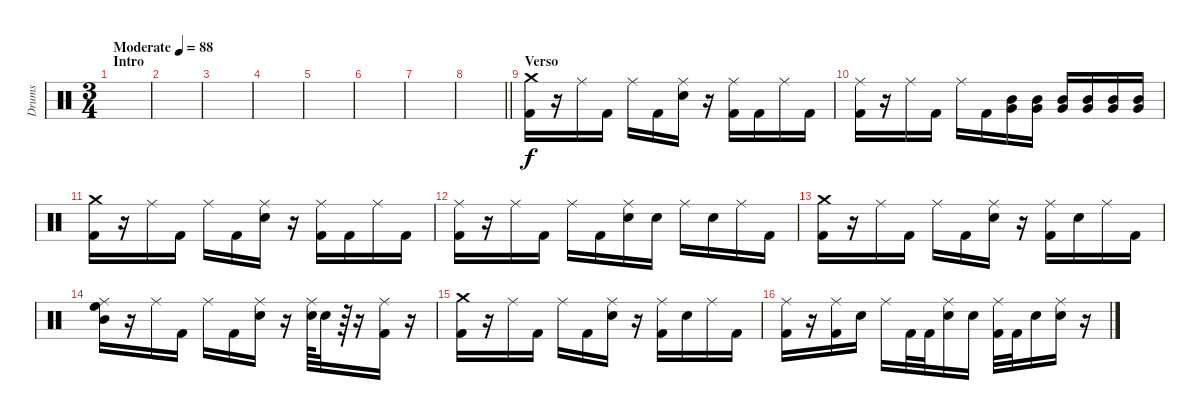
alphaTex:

\track ("Drums" "Drums") {instrument percussion}
\staff {score}
\articulation defaults
\ts (3 4)
\section ("" "Intro")
\tempo (88 "Moderate")
\clef neutral
\ks c
|
|
|
|
|
|
|
\barLineRight lightlight
|
\section ("" "Verso")
("Crash medium (hit)" "Kick (hit) 2").16 r.16 "Ride (middle)".16 "Kick (hit) 2".16 "Ride (middle)".16 "Kick (hit) 2".16 ("Ride (middle)" "Snare (hit) 2").16 r.16 ("Ride (middle)" "Kick (hit) 2").16 "Kick (hit) 2".16 "Ride (middle)".16 "Kick (hit) 2".16 |
("Ride (middle)" "Kick (hit) 2").16 r.16 "Ride (middle)".16 "Kick (hit) 2".16 "Ride (middle)".16 "Kick (hit) 2".16 ("Mid Tom (hit)" "Very Low Tom (hit)").16 ("Mid Tom (hit)" "Very Low Tom (hit)").16 ("Mid Tom (hit)" "Very Low Tom (hit)").16 ("Mid Tom (hit)" "Very Low Tom (hit)").16 ("Mid Tom (hit)" "Very Low Tom (hit)").16 ("Mid Tom (hit)" "Very Low Tom (hit)").16 |
("Crash medium (hit)" "Kick (hit) 2").16 r.16 "Ride (middle)".16 "Kick (hit) 2".16 "Ride (middle)".16 "Kick (hit) 2".16 ("Ride (middle)" "Snare (hit) 2").16 r.16 ("Ride (middle)" "Kick (hit) 2").16 "Kick (hit) 2".16 "Ride (middle)".16 "Kick (hit) 2".16 |
("Ride (middle)" "Kick (hit) 2").16 r.16 "Ride (middle)".16 "Kick (hit) 2".16 "Ride (middle)".16 "Kick (hit) 2".16 ("Ride (middle)" "Snare (hit) 2").16 "Snare (hit) 2".16 "Ride (middle)".16 "Snare (hit) 2".16 "Ride (middle)".16 "Kick (hit) 2".16 |
("Crash medium (hit)" "Kick (hit) 2").16 r.16 "Ride (middle)".16 "Kick (hit) 2".16 "Ride (middle)".16 "Kick (hit) 2".16 ("Ride (middle)" "Snare (hit) 2").16 r.16 ("Ride (middle)" "Kick (hit) 2").16 "Snare (hit) 2".16 "Ride (middle)".16 "Kick (hit) 2".16 |
("Ride (middle)" "High Floor Tom (hit)" "Mid Tom (hit)").16 r.16 "Ride (middle)".16 "Kick (hit) 2".16 "Ride (middle)".16 "Kick (hit) 2".16 ("Ride (middle)" "Snare (hit) 2").16 r.16 ("Ride (middle)" "Snare (hit) 2").64 "Snare (hit) 2".32 r.64 r.16 ("Ride (middle)" "Kick (hit) 2").16 r.16 |
("Crash medium (hit)" "Kick (hit) 2").16 r.16 "Ride (middle)".16 "Kick (hit) 2".16 "Ride (middle)".16 "Kick (hit) 2".16 ("Ride (middle)" "Snare (hit) 2").16 r.16 ("Ride (middle)" "Kick (hit) 2").16 "Snare (hit) 2".16 "Ride (middle)".16 "Kick (hit) 2".16 |
("Ride (middle)" "Kick (hit) 2").16 r.16 ("Ride (middle)" "Kick (hit) 2").16 "Snare (hit) 2".16 "Ride (middle)".16 "Kick (hit) 2".32 "Kick (hit) 2".32 ("Ride (middle)" "Snare (hit) 2").16 "Snare (hit) 2".16 ("Ride (middle)" "Kick (hit) 2").32 "Kick (hit) 2".32 "Snare (hit) 2".16 ("Ride (middle)" "Snare (hit) 2").16 r.16
